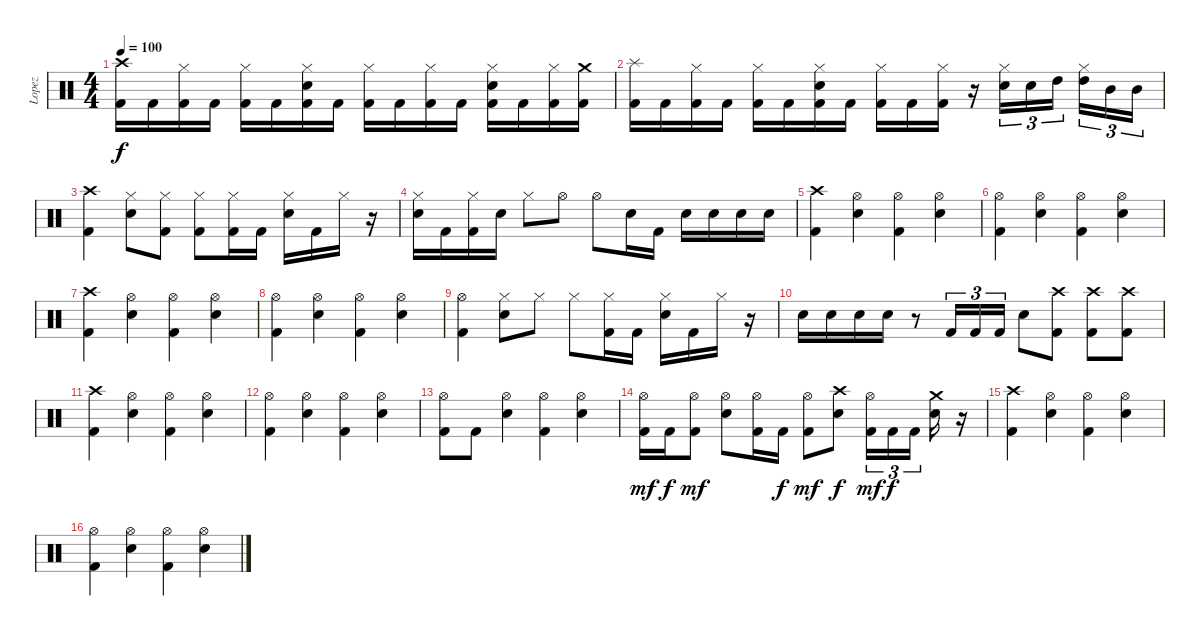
\track ("Lopez" "Lopez") {instrument percussion}
\staff {score}
\articulation defaults
\ts (4 4)
\tempo 100
\clef neutral
\ks c
("Crash high (hit)" "Kick (hit) 2").16{dy f} "Kick (hit) 2".16 ("Hi-Hat (closed)" "Kick (hit) 2").16 "Kick (hit) 2".16 ("Hi-Hat (closed)" "Kick (hit) 2").16 "Kick (hit) 2".16 ("Hi-Hat (closed)" "Snare (hit) 2" "Kick (hit) 2").16 "Kick (hit) 2".16 ("Hi-Hat (closed)" "Kick (hit) 2").16 "Kick (hit) 2".16 ("Hi-Hat (closed)" "Kick (hit) 2").16 "Kick (hit) 2".16 ("Hi-Hat (closed)" "Snare (hit) 2" "Kick (hit) 2").16 "Kick (hit) 2".16 ("Hi-Hat (closed)" "Kick (hit) 2").16 ("Crash medium (hit)" "Kick (hit) 2").16 |
("Splash (hit)" "Kick (hit) 2").16 "Kick (hit) 2".16 ("Hi-Hat (closed)" "Kick (hit) 2").16 "Kick (hit) 2".16 ("Hi-Hat (closed)" "Kick (hit) 2").16 "Kick (hit) 2".16 ("Hi-Hat (closed)" "Snare (hit) 2" "Kick (hit) 2").16 "Kick (hit) 2".16 ("Hi-Hat (closed)" "Kick (hit) 2").16 "Kick (hit) 2".16 ("Hi-Hat (closed)" "Kick (hit) 2").16 r.16 ("Hi-Hat (closed)" "Snare (hit) 2").16{tu (3 2)} "Snare (hit) 2".16{tu (3 2)} "High Tom (hit)".16{tu (3 2)} ("Hi-Hat (closed)" "High Tom (hit)").16{tu (3 2)} "Mid Tom (hit)".16{tu (3 2)} "Mid Tom (hit)".16{tu (3 2)} |
("Crash high (hit)" "Kick (hit) 2").4 ("Hi-Hat (closed)" "Snare (hit) 2").8 ("Hi-Hat (closed)" "Kick (hit) 2").8 ("Hi-Hat (closed)" "Kick (hit) 2").8 ("Hi-Hat (closed)" "Kick (hit) 2").16 "Kick (hit) 2".16 ("Hi-Hat (closed)" "Snare (hit) 2").16 "Kick (hit) 2".16 "Hi-Hat (closed)".16 r.16 |
("Hi-Hat (closed)" "Snare (hit) 2").16 "Kick (hit) 2".16 ("Hi-Hat (closed)" "Kick (hit) 2").16 "Snare (hit) 2".16 "Hi-Hat (closed)".8 "Hi-Hat (open)".8 "Hi-Hat (open)".8 "Snare (hit) 2".16 "Kick (hit) 2".16 "Snare (hit) 2".16 "Snare (hit) 2".16 "Snare (hit) 2".16 "Snare (hit) 2".16 |
("Crash high (hit)" "Kick (hit) 2").4 ("Hi-Hat (open)" "Snare (hit) 2").4 ("Hi-Hat (open)" "Kick (hit) 2").4 ("Hi-Hat (open)" "Snare (hit) 2").4 |
("Hi-Hat (open)" "Kick (hit) 2").4 ("Hi-Hat (open)" "Snare (hit) 2").4 ("Hi-Hat (open)" "Kick (hit) 2").4 ("Hi-Hat (open)" "Snare (hit) 2").4 |
("Crash high (hit)" "Kick (hit) 2").4 ("Hi-Hat (open)" "Snare (hit) 2").4 ("Hi-Hat (open)" "Kick (hit) 2").4 ("Hi-Hat (open)" "Snare (hit) 2").4 |
("Hi-Hat (open)" "Kick (hit) 2").4 ("Hi-Hat (open)" "Snare (hit) 2").4 ("Hi-Hat (open)" "Kick (hit) 2").4 ("Hi-Hat (open)" "Snare (hit) 2").4 |
("Hi-Hat (open)" "Kick (hit) 2").4 ("Hi-Hat (closed)" "Snare (hit) 2").8 "Hi-Hat (closed)".8 "Hi-Hat (closed)".8 ("Hi-Hat (closed)" "Kick (hit) 2").16 "Kick (hit) 2".16 ("Hi-Hat (closed)" "Snare (hit) 2").16 "Kick (hit) 2".16 "Hi-Hat (closed)".16 r.16 |
"Snare (hit) 2".16 "Snare (hit) 2".16 "Snare (hit) 2".16 "Snare (hit) 2".16 r.8 "Kick (hit) 2".16{tu (3 2)} "Kick (hit) 2".16{tu (3 2)} "Kick (hit) 2".16{tu (3 2)} "Snare (hit) 2".8 ("Crash high (hit)" "Kick (hit) 2").8 ("Crash high (hit)" "Kick (hit) 2").8 ("Crash high (hit)" "Kick (hit) 2").8 |
("Crash high (hit)" "Kick (hit) 2").4 ("Hi-Hat (open)" "Snare (hit) 2").4 ("Hi-Hat (open)" "Kick (hit) 2").4 ("Hi-Hat (open)" "Snare (hit) 2").4 |
("Hi-Hat (open)" "Kick (hit) 2").4 ("Hi-Hat (open)" "Snare (hit) 2").4 ("Hi-Hat (open)" "Kick (hit) 2").4 ("Hi-Hat (open)" "Snare (hit) 2").4 |
("Hi-Hat (open)" "Kick (hit) 2").8 "Kick (hit) 2".8 ("Hi-Hat (open)" "Snare (hit) 2").4 ("Hi-Hat (open)" "Kick (hit) 2").4 ("Hi-Hat (open)" "Snare (hit) 2").4 |
("Hi-Hat (open)" "Kick (hit) 2").16{dy mf} "Kick (hit) 2".16{dy f} ("Hi-Hat (open)" "Kick (hit) 2").8{dy mf} ("Hi-Hat (open)" "Snare (hit) 2").8 ("Hi-Hat (open)" "Kick (hit) 2").16 "Kick (hit) 2".16{dy f} ("Hi-Hat (open)" "Kick (hit) 2").8{dy mf} ("Crash high (hit)" "Snare (hit) 2").8{dy f} ("Hi-Hat (open)" "Kick (hit) 2").16{tu (3 2) dy mf} "Kick (hit) 2".16{tu (3 2) dy f} "Kick (hit) 2".16{tu (3 2)} ("Crash medium (hit)" "Snare (hit) 2").16 r.16 |
("Crash high (hit)" "Kick (hit) 2").4 ("Hi-Hat (open)" "Snare (hit) 2").4 ("Hi-Hat (open)" "Kick (hit) 2").4 ("Hi-Hat (open)" "Snare (hit) 2").4 |
("Hi-Hat (open)" "Kick (hit) 2").4 ("Hi-Hat (open)" "Snare (hit) 2").4 ("Hi-Hat (open)" "Kick (hit) 2").4 ("Hi-Hat (open)" "Snare (hit) 2").4
